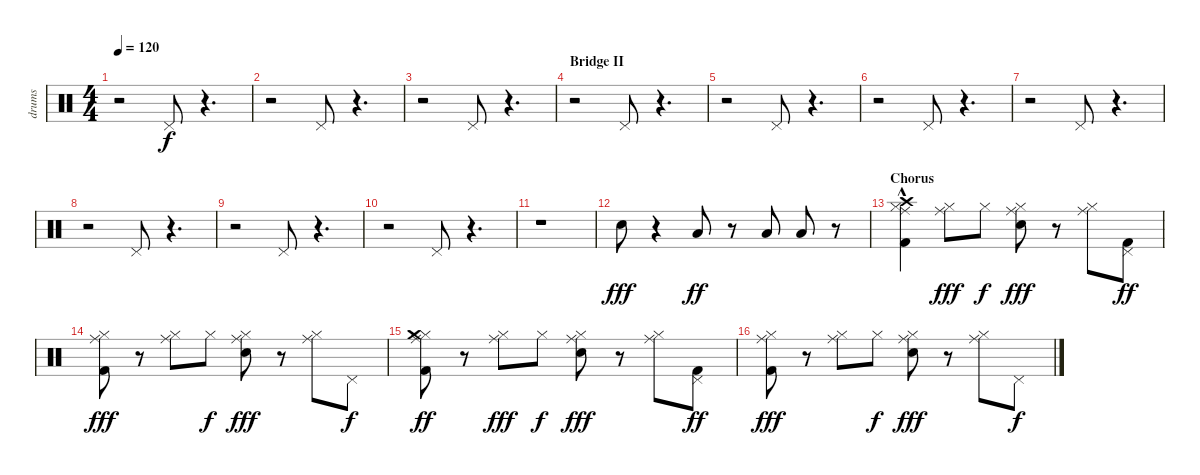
\track ("drums" "drums") {instrument percussion}
\staff {score}
\articulation defaults
\ts (4 4)
\tempo 120
\clef neutral
\ks c
r.2{dy f} "Pedal Hi-Hat (hit)".8 r.4{d} |
r.2 "Pedal Hi-Hat (hit)".8 r.4{d} |
r.2 "Pedal Hi-Hat (hit)".8 r.4{d} |
\section ("" "Bridge II")
r.2 "Pedal Hi-Hat (hit)".8 r.4{d} |
r.2 "Pedal Hi-Hat (hit)".8 r.4{d} |
r.2 "Pedal Hi-Hat (hit)".8 r.4{d} |
r.2 "Pedal Hi-Hat (hit)".8 r.4{d} |
r.2 "Pedal Hi-Hat (hit)".8 r.4{d} |
r.2 "Pedal Hi-Hat (hit)".8 r.4{d} |
r.2 "Pedal Hi-Hat (hit)".8 r.4{d} |
r.1 |
"Snare (hit) 2".8{dy fff} r.4 "Low Tom (hit)".8{dy ff} r.8 "Low Tom (hit)".8 "Low Floor Tom (hit)".8 r.8 |
\section ("" "Chorus")
("Kick (hit) 2" "Hi-Hat (closed)" "Ride (middle)" "Crash high (hit)"{hac}).4 ("Hi-Hat (closed)" "Ride (middle)").8{dy fff} "Hi-Hat (closed)".8{dy f} ("Snare (hit) 2" "Hi-Hat (closed)" "Ride (middle)").8{dy fff} r.8 ("Hi-Hat (closed)" "Ride (middle)").8 ("Kick (hit) 2" "Pedal Hi-Hat (hit)").8{dy ff} |
("Kick (hit) 2" "Hi-Hat (closed)" "Ride (middle)").8{dy fff} r.8 ("Hi-Hat (closed)" "Ride (middle)").8 "Hi-Hat (closed)".8{dy f} ("Snare (hit) 2" "Hi-Hat (closed)" "Ride (middle)").8{dy fff} r.8 ("Hi-Hat (closed)" "Ride (middle)").8 "Pedal Hi-Hat (hit)".8{dy f} |
("Kick (hit) 2" "Hi-Hat (closed)" "Ride (middle)" "Crash medium (hit)").8{dy ff} r.8 ("Hi-Hat (closed)" "Ride (middle)").8{dy fff} "Hi-Hat (closed)".8{dy f} ("Snare (hit) 2" "Hi-Hat (closed)" "Ride (middle)").8{dy fff} r.8 ("Hi-Hat (closed)" "Ride (middle)").8 ("Kick (hit) 2" "Pedal Hi-Hat (hit)").8{dy ff} |
("Kick (hit) 2" "Hi-Hat (closed)" "Ride (middle)").8{dy fff} r.8 ("Hi-Hat (closed)" "Ride (middle)").8 "Hi-Hat (closed)".8{dy f} ("Snare (hit) 2" "Hi-Hat (closed)" "Ride (middle)").8{dy fff} r.8 ("Hi-Hat (closed)" "Ride (middle)").8 "Pedal Hi-Hat (hit)".8{dy f}
